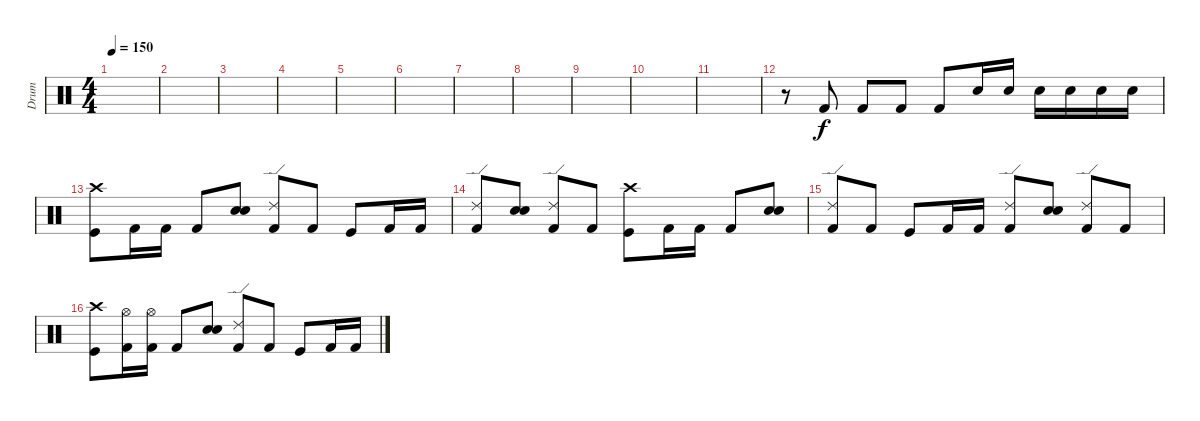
\track ("Drum" "Drum") {instrument percussion}
\staff {score}
\articulation defaults
\ts (4 4)
\tempo 150
\clef neutral
\ks c
|
|
|
|
|
|
|
|
|
|
|
r.8 "Kick (hit) 2".8 "Kick (hit) 2".8 "Kick (hit) 2".8 "Kick (hit) 2".8 "Electric Snare (hit)".16 "Electric Snare (hit)".16 "Electric Snare (hit)".16 "Snare (hit) 2".16 "Snare (hit) 2".16 "Snare (hit) 2".16 |
("Crash high (hit)" "Kick (hit)").8 "Kick (hit) 2".16 "Kick (hit) 2".16 "Kick (hit) 2".8 ("Snare (hit) 2" "Electric Snare (hit)").8 ("Ride (edge) 2" "Kick (hit) 2").8 "Kick (hit) 2".8 "Kick (hit)".8 "Kick (hit) 2".16 "Kick (hit) 2".16 |
("Ride (edge) 2" "Kick (hit) 2").8 ("Snare (hit) 2" "Electric Snare (hit)").8 ("Ride (edge) 2" "Kick (hit) 2").8 "Kick (hit) 2".8 ("Crash high (hit)" "Kick (hit)").8 "Kick (hit) 2".16 "Kick (hit) 2".16 "Kick (hit) 2".8 ("Snare (hit) 2" "Electric Snare (hit)").8 |
("Ride (edge) 2" "Kick (hit) 2").8 "Kick (hit) 2".8 "Kick (hit)".8 "Kick (hit) 2".16 "Kick (hit) 2".16 ("Ride (edge) 2" "Kick (hit) 2").8 ("Snare (hit) 2" "Electric Snare (hit)").8 ("Ride (edge) 2" "Kick (hit) 2").8 "Kick (hit) 2".8 |
("Crash high (hit)" "Kick (hit)").8 ("Hi-Hat (open)" "Kick (hit) 2").16 ("Hi-Hat (open)" "Kick (hit) 2").16 "Kick (hit) 2".8 ("Snare (hit) 2" "Electric Snare (hit)").8 ("Ride (edge) 2" "Kick (hit) 2").8 "Kick (hit) 2".8 "Kick (hit)".8 "Kick (hit) 2".16 "Kick (hit) 2".16
